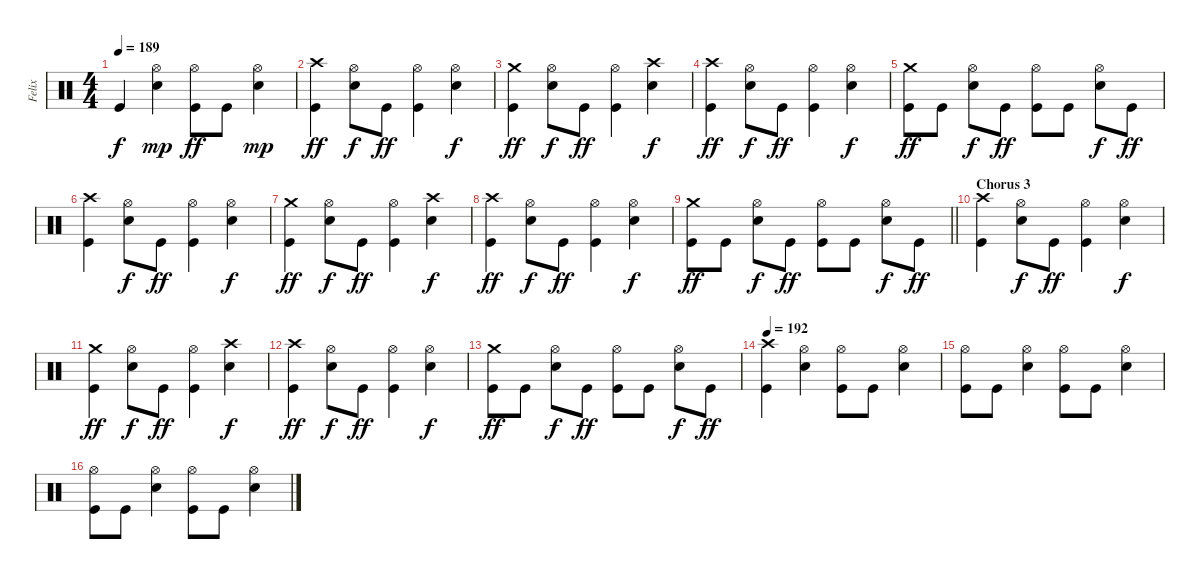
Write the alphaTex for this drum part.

\track ("Felix" "Felix") {instrument percussion}
\staff {score}
\articulation defaults
\ts (4 4)
\tempo 189
\clef neutral
\ks c "Kick (hit)"{t}.4{dy f}
("Hi-Hat (open)" "Snare (hit) 2").4{dy mp} ("Hi-Hat (open)" "Kick (hit)").8{dy ff} "Kick (hit)".8 ("Hi-Hat (open)" "Snare (hit) 2").4{dy mp} |
("Crash high (hit)" "Kick (hit)").4{dy ff} ("Hi-Hat (open)" "Snare (hit) 2").8{dy f} "Kick (hit)".8{dy ff} ("Hi-Hat (open)" "Kick (hit)").4 ("Hi-Hat (open)" "Snare (hit) 2").4{dy f} |
("Crash medium (hit)" "Kick (hit)").4{dy ff} ("Hi-Hat (open)" "Snare (hit) 2").8{dy f} "Kick (hit)".8{dy ff} ("Hi-Hat (open)" "Kick (hit)").4 ("Crash high (hit)" "Snare (hit) 2").4{dy f} |
("Crash high (hit)" "Kick (hit)").4{dy ff} ("Hi-Hat (open)" "Snare (hit) 2").8{dy f} "Kick (hit)".8{dy ff} ("Hi-Hat (open)" "Kick (hit)").4 ("Hi-Hat (open)" "Snare (hit) 2").4{dy f} |
("Crash medium (hit)" "Kick (hit)").8{dy ff} "Kick (hit)".8 ("Hi-Hat (open)" "Snare (hit) 2").8{dy f} "Kick (hit)".8{dy ff} ("Hi-Hat (open)" "Kick (hit)").8 "Kick (hit)".8 ("Hi-Hat (open)" "Snare (hit) 2").8{dy f} "Kick (hit)".8{dy ff} |
("Crash high (hit)" "Kick (hit)").4 ("Hi-Hat (open)" "Snare (hit) 2").8{dy f} "Kick (hit)".8{dy ff} ("Hi-Hat (open)" "Kick (hit)").4 ("Hi-Hat (open)" "Snare (hit) 2").4{dy f} |
("Crash medium (hit)" "Kick (hit)").4{dy ff} ("Hi-Hat (open)" "Snare (hit) 2").8{dy f} "Kick (hit)".8{dy ff} ("Hi-Hat (open)" "Kick (hit)").4 ("Crash high (hit)" "Snare (hit) 2").4{dy f} |
("Crash high (hit)" "Kick (hit)").4{dy ff} ("Hi-Hat (open)" "Snare (hit) 2").8{dy f} "Kick (hit)".8{dy ff} ("Hi-Hat (open)" "Kick (hit)").4 ("Hi-Hat (open)" "Snare (hit) 2").4{dy f} |
\barLineRight lightlight
("Crash medium (hit)" "Kick (hit)").8{dy ff} "Kick (hit)".8 ("Hi-Hat (open)" "Snare (hit) 2").8{dy f} "Kick (hit)".8{dy ff} ("Hi-Hat (open)" "Kick (hit)").8 "Kick (hit)".8 ("Hi-Hat (open)" "Snare (hit) 2").8{dy f} "Kick (hit)".8{dy ff} |
\section ("" "Chorus 3")
("Crash high (hit)" "Kick (hit)").4 ("Hi-Hat (open)" "Snare (hit) 2").8{dy f} "Kick (hit)".8{dy ff} ("Hi-Hat (open)" "Kick (hit)").4 ("Hi-Hat (open)" "Snare (hit) 2").4{dy f} |
("Crash medium (hit)" "Kick (hit)").4{dy ff} ("Hi-Hat (open)" "Snare (hit) 2").8{dy f} "Kick (hit)".8{dy ff} ("Hi-Hat (open)" "Kick (hit)").4 ("Crash high (hit)" "Snare (hit) 2").4{dy f} |
("Crash high (hit)" "Kick (hit)").4{dy ff} ("Hi-Hat (open)" "Snare (hit) 2").8{dy f} "Kick (hit)".8{dy ff} ("Hi-Hat (open)" "Kick (hit)").4 ("Hi-Hat (open)" "Snare (hit) 2").4{dy f} |
("Crash medium (hit)" "Kick (hit)").8{dy ff} "Kick (hit)".8 ("Hi-Hat (open)" "Snare (hit) 2").8{dy f} "Kick (hit)".8{dy ff} ("Hi-Hat (open)" "Kick (hit)").8 "Kick (hit)".8 ("Hi-Hat (open)" "Snare (hit) 2").8{dy f} "Kick (hit)".8{dy ff} |
\tempo 192
("Crash high (hit)" "Kick (hit)").4 ("Hi-Hat (open)" "Snare (hit) 2").4 ("Hi-Hat (open)" "Kick (hit)").8 "Kick (hit)".8 ("Hi-Hat (open)" "Snare (hit) 2").4 |
("Hi-Hat (open)" "Kick (hit)").8 "Kick (hit)".8 ("Hi-Hat (open)" "Snare (hit) 2").4 ("Hi-Hat (open)" "Kick (hit)").8 "Kick (hit)".8 ("Hi-Hat (open)" "Snare (hit) 2").4 |
("Hi-Hat (open)" "Kick (hit)").8 "Kick (hit)".8 ("Hi-Hat (open)" "Snare (hit) 2").4 ("Hi-Hat (open)" "Kick (hit)").8 "Kick (hit)".8 ("Hi-Hat (open)" "Snare (hit) 2").4
